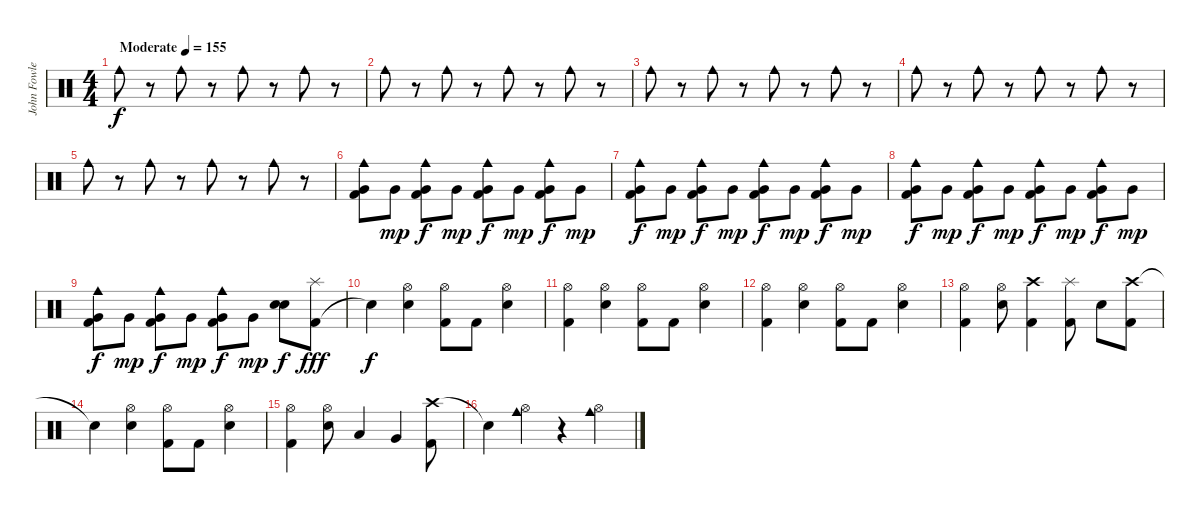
\track ("John Fowler - Drums" "John Fowle") {instrument percussion}
\staff {score}
\articulation defaults
\ts (4 4)
\tempo (155 "Moderate")
\clef neutral
\ks c "Cowbell medium (hit)".8{dy f}
r.8 "Cowbell medium (hit)".8 r.8 "Cowbell medium (hit)".8 r.8 "Cowbell medium (hit)".8 r.8 |
"Cowbell medium (hit)".8 r.8 "Cowbell medium (hit)".8 r.8 "Cowbell medium (hit)".8 r.8 "Cowbell medium (hit)".8 r.8 |
"Cowbell medium (hit)".8 r.8 "Cowbell medium (hit)".8 r.8 "Cowbell medium (hit)".8 r.8 "Cowbell medium (hit)".8 r.8 |
"Cowbell medium (hit)".8 r.8 "Cowbell medium (hit)".8 r.8 "Cowbell medium (hit)".8 r.8 "Cowbell medium (hit)".8 r.8 |
"Cowbell medium (hit)".8 r.8 "Cowbell medium (hit)".8 r.8 "Cowbell medium (hit)".8 r.8 "Cowbell medium (hit)".8 r.8{volume 8} |
("Very Low Tom (hit)" "Kick (hit) 2" "Cowbell medium (hit)").8{volume 16} "Very Low Tom (hit)".8{dy mp} ("Very Low Tom (hit)" "Kick (hit) 2" "Cowbell medium (hit)").8{dy f} "Very Low Tom (hit)".8{dy mp} ("Very Low Tom (hit)" "Kick (hit) 2" "Cowbell medium (hit)").8{dy f} "Very Low Tom (hit)".8{dy mp} ("Very Low Tom (hit)" "Kick (hit) 2" "Cowbell medium (hit)").8{dy f} "Very Low Tom (hit)".8{dy mp} |
("Very Low Tom (hit)" "Kick (hit) 2" "Cowbell medium (hit)").8{dy f} "Very Low Tom (hit)".8{dy mp} ("Very Low Tom (hit)" "Kick (hit) 2" "Cowbell medium (hit)").8{dy f} "Very Low Tom (hit)".8{dy mp} ("Very Low Tom (hit)" "Kick (hit) 2" "Cowbell medium (hit)").8{dy f} "Very Low Tom (hit)".8{dy mp} ("Very Low Tom (hit)" "Kick (hit) 2" "Cowbell medium (hit)").8{dy f} "Very Low Tom (hit)".8{dy mp} |
("Very Low Tom (hit)" "Kick (hit) 2" "Cowbell medium (hit)").8{dy f} "Very Low Tom (hit)".8{dy mp} ("Very Low Tom (hit)" "Kick (hit) 2" "Cowbell medium (hit)").8{dy f} "Very Low Tom (hit)".8{dy mp} ("Very Low Tom (hit)" "Kick (hit) 2" "Cowbell medium (hit)").8{dy f} "Very Low Tom (hit)".8{dy mp} ("Very Low Tom (hit)" "Kick (hit) 2" "Cowbell medium (hit)").8{dy f} "Very Low Tom (hit)".8{dy mp} |
("Very Low Tom (hit)" "Kick (hit) 2" "Cowbell medium (hit)").8{dy f} "Very Low Tom (hit)".8{dy mp} ("Very Low Tom (hit)" "Kick (hit) 2" "Cowbell medium (hit)").8{dy f} "Very Low Tom (hit)".8{dy mp} ("Very Low Tom (hit)" "Kick (hit) 2" "Cowbell medium (hit)").8{dy f} "Very Low Tom (hit)".8{dy mp} ("Electric Snare (hit)" "Electric Snare (hit)").8{bu 60 dy f} ("Kick (hit) 2" "Splash (hit)").8{dy fff} |
"Snare (hit)"{t}.4{dy f} ("Hi-Hat (open)" "Electric Snare (hit)").4 ("Hi-Hat (open)" "Kick (hit) 2").8 "Kick (hit) 2".8 ("Hi-Hat (open)" "Electric Snare (hit)").4 |
("Hi-Hat (open)" "Kick (hit) 2").4 ("Hi-Hat (open)" "Electric Snare (hit)").4 ("Kick (hit) 2" "Hi-Hat (open)").8 "Kick (hit) 2".8 ("Hi-Hat (open)" "Electric Snare (hit)").4 |
("Kick (hit) 2" "Hi-Hat (open)").4 ("Hi-Hat (open)" "Electric Snare (hit)").4 ("Hi-Hat (open)" "Kick (hit) 2").8 "Kick (hit) 2".8 ("Hi-Hat (open)" "Electric Snare (hit)").4 |
("Kick (hit) 2" "Hi-Hat (open)").4 ("Hi-Hat (open)" "Electric Snare (hit)").8 ("Kick (hit) 2" "Crash high (hit)").4 ("Kick (hit) 2" "Splash (hit)").8 "Electric Snare (hit)".8 ("Crash high (hit)" "Kick (hit) 2").8 |
"Snare (hit)"{t}.4 ("Hi-Hat (open)" "Electric Snare (hit)").4 ("Hi-Hat (open)" "Kick (hit) 2").8 "Kick (hit) 2".8 ("Hi-Hat (open)" "Electric Snare (hit)").4 |
("Hi-Hat (open)" "Kick (hit) 2").4 ("Hi-Hat (open)" "Electric Snare (hit)").8 "Low Tom (hit)".4 "Very Low Tom (hit)".4 ("Crash high (hit)" "Kick (hit) 2").8 |
"Snare (hit)"{t}.4 ("Hi-Hat (open)" "Cowbell medium (hit)").4 r.4 ("Cowbell medium (hit)" "Hi-Hat (open)").4
